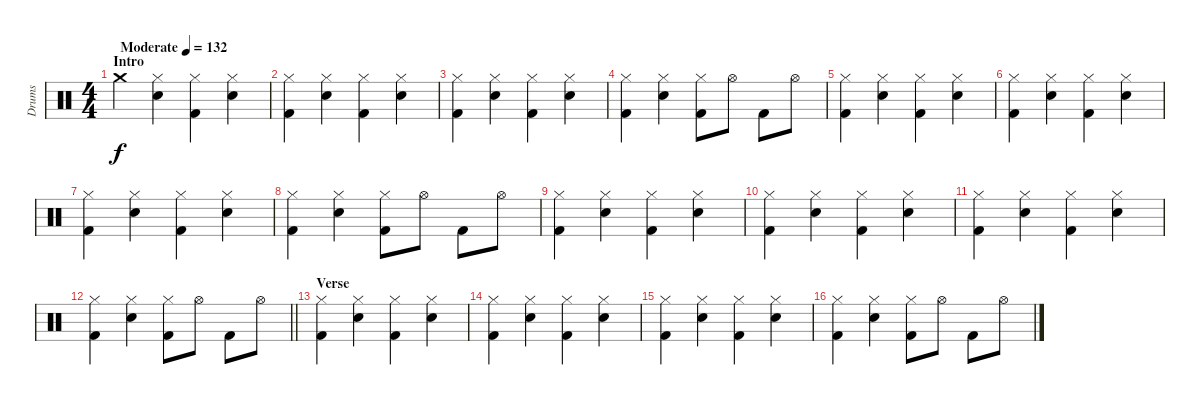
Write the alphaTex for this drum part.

\track ("Drums" "Drums") {instrument percussion}
\staff {score}
\articulation defaults
\ts (4 4)
\section ("" "Intro")
\tempo (132 "Moderate")
\clef neutral
\ks c "Crash medium (hit)".4{dy f}
("Hi-Hat (closed)" "Snare (hit) 2").4 ("Hi-Hat (closed)" "Kick (hit) 2").4 ("Hi-Hat (closed)" "Snare (hit) 2").4 |
("Hi-Hat (closed)" "Kick (hit) 2").4 ("Hi-Hat (closed)" "Snare (hit) 2").4 ("Hi-Hat (closed)" "Kick (hit) 2").4 ("Hi-Hat (closed)" "Snare (hit) 2").4 |
("Hi-Hat (closed)" "Kick (hit) 2").4 ("Hi-Hat (closed)" "Snare (hit) 2").4 ("Hi-Hat (closed)" "Kick (hit) 2").4 ("Hi-Hat (closed)" "Snare (hit) 2").4 |
("Hi-Hat (closed)" "Kick (hit) 2").4 ("Hi-Hat (closed)" "Snare (hit) 2").4 ("Hi-Hat (closed)" "Kick (hit) 2").8 "Hi-Hat (open)".8 "Kick (hit) 2".8 "Hi-Hat (open)".8 |
("Hi-Hat (closed)" "Kick (hit) 2").4 ("Hi-Hat (closed)" "Snare (hit) 2").4 ("Hi-Hat (closed)" "Kick (hit) 2").4 ("Hi-Hat (closed)" "Snare (hit) 2").4 |
("Hi-Hat (closed)" "Kick (hit) 2").4 ("Hi-Hat (closed)" "Snare (hit) 2").4 ("Hi-Hat (closed)" "Kick (hit) 2").4 ("Hi-Hat (closed)" "Snare (hit) 2").4 |
("Hi-Hat (closed)" "Kick (hit) 2").4 ("Hi-Hat (closed)" "Snare (hit) 2").4 ("Hi-Hat (closed)" "Kick (hit) 2").4 ("Hi-Hat (closed)" "Snare (hit) 2").4 |
("Hi-Hat (closed)" "Kick (hit) 2").4 ("Hi-Hat (closed)" "Snare (hit) 2").4 ("Hi-Hat (closed)" "Kick (hit) 2").8 "Hi-Hat (open)".8 "Kick (hit) 2".8 "Hi-Hat (open)".8 |
("Hi-Hat (closed)" "Kick (hit) 2").4 ("Hi-Hat (closed)" "Snare (hit) 2").4 ("Hi-Hat (closed)" "Kick (hit) 2").4 ("Hi-Hat (closed)" "Snare (hit) 2").4 |
("Hi-Hat (closed)" "Kick (hit) 2").4 ("Hi-Hat (closed)" "Snare (hit) 2").4 ("Hi-Hat (closed)" "Kick (hit) 2").4 ("Hi-Hat (closed)" "Snare (hit) 2").4 |
("Hi-Hat (closed)" "Kick (hit) 2").4 ("Hi-Hat (closed)" "Snare (hit) 2").4 ("Hi-Hat (closed)" "Kick (hit) 2").4 ("Hi-Hat (closed)" "Snare (hit) 2").4 |
\barLineRight lightlight
("Hi-Hat (closed)" "Kick (hit) 2").4 ("Hi-Hat (closed)" "Snare (hit) 2").4 ("Hi-Hat (closed)" "Kick (hit) 2").8 "Hi-Hat (open)".8 "Kick (hit) 2".8 "Hi-Hat (open)".8 |
\section ("" "Verse")
("Hi-Hat (closed)" "Kick (hit) 2").4 ("Hi-Hat (closed)" "Snare (hit) 2").4 ("Hi-Hat (closed)" "Kick (hit) 2").4 ("Hi-Hat (closed)" "Snare (hit) 2").4 |
("Hi-Hat (closed)" "Kick (hit) 2").4 ("Hi-Hat (closed)" "Snare (hit) 2").4 ("Hi-Hat (closed)" "Kick (hit) 2").4 ("Hi-Hat (closed)" "Snare (hit) 2").4 |
("Hi-Hat (closed)" "Kick (hit) 2").4 ("Hi-Hat (closed)" "Snare (hit) 2").4 ("Hi-Hat (closed)" "Kick (hit) 2").4 ("Hi-Hat (closed)" "Snare (hit) 2").4 |
("Hi-Hat (closed)" "Kick (hit) 2").4 ("Hi-Hat (closed)" "Snare (hit) 2").4 ("Hi-Hat (closed)" "Kick (hit) 2").8 "Hi-Hat (open)".8 "Kick (hit) 2".8 "Hi-Hat (open)".8
